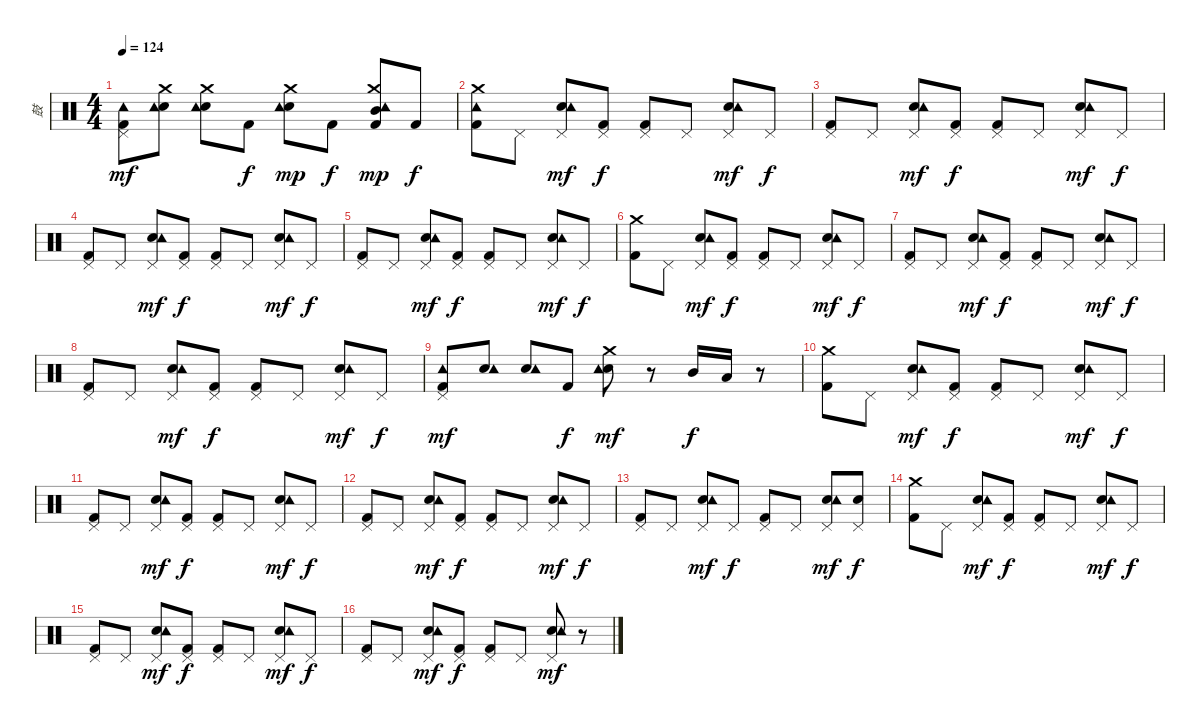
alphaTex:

\track ("鼓" "鼓") {instrument percussion}
\staff {score}
\articulation defaults
\ts (4 4)
\tempo 124
\clef neutral
\ks c
("Kick (hit) 2" "Pedal Hi-Hat (hit)" "Tambourine (hit)").8{dy mf} ("Electric Snare (hit)" "Crash medium (hit)" "Tambourine (hit)").8 ("Electric Snare (hit)" "Crash medium (hit)" "Tambourine (hit)").8 "Kick (hit) 2".8{dy f} ("Electric Snare (hit)" "Crash medium (hit)" "Tambourine (hit)").8{dy mp} "Kick (hit) 2".8{dy f} ("Kick (hit) 2" "Mid Tom (hit)" "Crash medium (hit)" "Tambourine (hit)").8{dy mp} "Kick (hit) 2".8{dy f} |
("Kick (hit) 2" "Crash medium (hit)" "Tambourine (hit)").8 "Pedal Hi-Hat (hit)".8 ("Electric Snare (hit)" "Pedal Hi-Hat (hit)" "Tambourine (hit)").8{dy mf} ("Kick (hit) 2" "Pedal Hi-Hat (hit)").8{dy f} ("Kick (hit) 2" "Pedal Hi-Hat (hit)").8 "Pedal Hi-Hat (hit)".8 ("Electric Snare (hit)" "Pedal Hi-Hat (hit)" "Tambourine (hit)").8{dy mf} "Pedal Hi-Hat (hit)".8{dy f} |
("Kick (hit) 2" "Pedal Hi-Hat (hit)").8 "Pedal Hi-Hat (hit)".8 ("Electric Snare (hit)" "Pedal Hi-Hat (hit)" "Tambourine (hit)").8{dy mf} ("Kick (hit) 2" "Pedal Hi-Hat (hit)").8{dy f} ("Kick (hit) 2" "Pedal Hi-Hat (hit)").8 "Pedal Hi-Hat (hit)".8 ("Electric Snare (hit)" "Pedal Hi-Hat (hit)" "Tambourine (hit)").8{dy mf} "Pedal Hi-Hat (hit)".8{dy f} |
("Kick (hit) 2" "Pedal Hi-Hat (hit)").8 "Pedal Hi-Hat (hit)".8 ("Electric Snare (hit)" "Pedal Hi-Hat (hit)" "Tambourine (hit)").8{dy mf} ("Kick (hit) 2" "Pedal Hi-Hat (hit)").8{dy f} ("Kick (hit) 2" "Pedal Hi-Hat (hit)").8 "Pedal Hi-Hat (hit)".8 ("Electric Snare (hit)" "Pedal Hi-Hat (hit)" "Tambourine (hit)").8{dy mf} "Pedal Hi-Hat (hit)".8{dy f} |
("Kick (hit) 2" "Pedal Hi-Hat (hit)").8 "Pedal Hi-Hat (hit)".8 ("Electric Snare (hit)" "Pedal Hi-Hat (hit)" "Tambourine (hit)").8{dy mf} ("Kick (hit) 2" "Pedal Hi-Hat (hit)").8{dy f} ("Kick (hit) 2" "Pedal Hi-Hat (hit)").8 "Pedal Hi-Hat (hit)".8 ("Electric Snare (hit)" "Pedal Hi-Hat (hit)" "Tambourine (hit)").8{dy mf} "Pedal Hi-Hat (hit)".8{dy f} |
("Kick (hit) 2" "Crash medium (hit)").8 "Pedal Hi-Hat (hit)".8 ("Electric Snare (hit)" "Pedal Hi-Hat (hit)" "Tambourine (hit)").8{dy mf} ("Kick (hit) 2" "Pedal Hi-Hat (hit)").8{dy f} ("Kick (hit) 2" "Pedal Hi-Hat (hit)").8 "Pedal Hi-Hat (hit)".8 ("Electric Snare (hit)" "Pedal Hi-Hat (hit)" "Tambourine (hit)").8{dy mf} "Pedal Hi-Hat (hit)".8{dy f} |
("Kick (hit) 2" "Pedal Hi-Hat (hit)").8 "Pedal Hi-Hat (hit)".8 ("Electric Snare (hit)" "Pedal Hi-Hat (hit)" "Tambourine (hit)").8{dy mf} ("Kick (hit) 2" "Pedal Hi-Hat (hit)").8{dy f} ("Kick (hit) 2" "Pedal Hi-Hat (hit)").8 "Pedal Hi-Hat (hit)".8 ("Electric Snare (hit)" "Pedal Hi-Hat (hit)" "Tambourine (hit)").8{dy mf} "Pedal Hi-Hat (hit)".8{dy f} |
("Kick (hit) 2" "Pedal Hi-Hat (hit)").8 "Pedal Hi-Hat (hit)".8 ("Electric Snare (hit)" "Pedal Hi-Hat (hit)" "Tambourine (hit)").8{dy mf} ("Kick (hit) 2" "Pedal Hi-Hat (hit)").8{dy f} ("Kick (hit) 2" "Pedal Hi-Hat (hit)").8 "Pedal Hi-Hat (hit)".8 ("Electric Snare (hit)" "Pedal Hi-Hat (hit)" "Tambourine (hit)").8{dy mf} "Pedal Hi-Hat (hit)".8{dy f} |
("Kick (hit) 2" "Pedal Hi-Hat (hit)" "Tambourine (hit)").8{dy mf} ("Electric Snare (hit)" "Tambourine (hit)").8 ("Electric Snare (hit)" "Tambourine (hit)").8 "Kick (hit) 2".8{dy f} ("Electric Snare (hit)" "Crash medium (hit)" "Tambourine (hit)").8{dy mf} r.8 "Mid Tom (hit)".16{dy f} "Low Tom (hit)".16 r.8 |
("Kick (hit) 2" "Crash medium (hit)").8 "Pedal Hi-Hat (hit)".8 ("Electric Snare (hit)" "Pedal Hi-Hat (hit)" "Tambourine (hit)").8{dy mf} ("Kick (hit) 2" "Pedal Hi-Hat (hit)").8{dy f} ("Kick (hit) 2" "Pedal Hi-Hat (hit)").8 "Pedal Hi-Hat (hit)".8 ("Electric Snare (hit)" "Pedal Hi-Hat (hit)" "Tambourine (hit)").8{dy mf} "Pedal Hi-Hat (hit)".8{dy f} |
("Kick (hit) 2" "Pedal Hi-Hat (hit)").8 "Pedal Hi-Hat (hit)".8 ("Electric Snare (hit)" "Pedal Hi-Hat (hit)" "Tambourine (hit)").8{dy mf} ("Kick (hit) 2" "Pedal Hi-Hat (hit)").8{dy f} ("Kick (hit) 2" "Pedal Hi-Hat (hit)").8 "Pedal Hi-Hat (hit)".8 ("Electric Snare (hit)" "Pedal Hi-Hat (hit)" "Tambourine (hit)").8{dy mf} "Pedal Hi-Hat (hit)".8{dy f} |
("Kick (hit) 2" "Pedal Hi-Hat (hit)").8 "Pedal Hi-Hat (hit)".8 ("Electric Snare (hit)" "Pedal Hi-Hat (hit)" "Tambourine (hit)").8{dy mf} ("Kick (hit) 2" "Pedal Hi-Hat (hit)").8{dy f} ("Kick (hit) 2" "Pedal Hi-Hat (hit)").8 "Pedal Hi-Hat (hit)".8 ("Electric Snare (hit)" "Pedal Hi-Hat (hit)" "Tambourine (hit)").8{dy mf} "Pedal Hi-Hat (hit)".8{dy f} |
("Kick (hit) 2" "Pedal Hi-Hat (hit)").8 "Pedal Hi-Hat (hit)".8 ("Electric Snare (hit)" "Pedal Hi-Hat (hit)" "Tambourine (hit)").8{dy mf} "Pedal Hi-Hat (hit)".8{dy f} ("Kick (hit) 2" "Pedal Hi-Hat (hit)").8 "Pedal Hi-Hat (hit)".8 ("Electric Snare (hit)" "Pedal Hi-Hat (hit)" "Tambourine (hit)").8{dy mf} ("Electric Snare (hit)" "Pedal Hi-Hat (hit)").8{dy f} |
("Kick (hit) 2" "Crash medium (hit)").8 "Pedal Hi-Hat (hit)".8 ("Electric Snare (hit)" "Pedal Hi-Hat (hit)" "Tambourine (hit)").8{dy mf} ("Kick (hit) 2" "Pedal Hi-Hat (hit)").8{dy f} ("Kick (hit) 2" "Pedal Hi-Hat (hit)").8 "Pedal Hi-Hat (hit)".8 ("Electric Snare (hit)" "Pedal Hi-Hat (hit)" "Tambourine (hit)").8{dy mf} "Pedal Hi-Hat (hit)".8{dy f} |
("Kick (hit) 2" "Pedal Hi-Hat (hit)").8 "Pedal Hi-Hat (hit)".8 ("Electric Snare (hit)" "Pedal Hi-Hat (hit)" "Tambourine (hit)").8{dy mf} ("Kick (hit) 2" "Pedal Hi-Hat (hit)").8{dy f} ("Kick (hit) 2" "Pedal Hi-Hat (hit)").8 "Pedal Hi-Hat (hit)".8 ("Electric Snare (hit)" "Pedal Hi-Hat (hit)" "Tambourine (hit)").8{dy mf} "Pedal Hi-Hat (hit)".8{dy f} |
("Kick (hit) 2" "Pedal Hi-Hat (hit)").8 "Pedal Hi-Hat (hit)".8 ("Electric Snare (hit)" "Pedal Hi-Hat (hit)" "Tambourine (hit)").8{dy mf} ("Kick (hit) 2" "Pedal Hi-Hat (hit)").8{dy f} ("Kick (hit) 2" "Pedal Hi-Hat (hit)").8 "Pedal Hi-Hat (hit)".8 ("Electric Snare (hit)" "Pedal Hi-Hat (hit)" "Tambourine (hit)").8{dy mf} r.8
